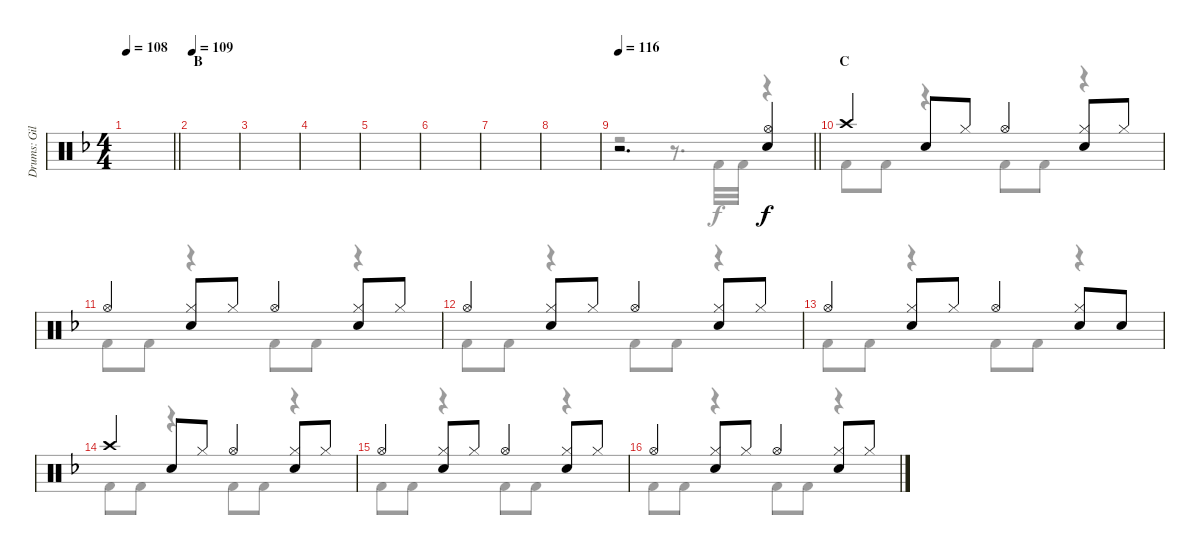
\track ("Drums: Gil" "Drums: Gil") {instrument percussion}
\staff {score}
\articulation defaults
\voice
\ts (4 4)
\tempo 108
\clef neutral
\barLineRight lightlight
\ks f
|
\section ("" "B")
\tempo 109
|
|
|
|
|
|
|
\tempo 116
\barLineRight lightlight
r.2{d} ("Hi-Hat (open)" "Snare (hit) 2").4 |
\section ("" "C")
"Crash high (hit)".4{beam merge} "Snare (hit) 2".8 "Hi-Hat (closed)".8 "Hi-Hat (open)".4{beam merge} ("Hi-Hat (closed)" "Snare (hit) 2").8 "Hi-Hat (closed)".8 |
"Hi-Hat (open)".4{beam merge} ("Hi-Hat (closed)" "Snare (hit) 2").8 "Hi-Hat (closed)".8 "Hi-Hat (open)".4{beam merge} ("Hi-Hat (closed)" "Snare (hit) 2").8 "Hi-Hat (closed)".8 |
"Hi-Hat (open)".4{beam merge} ("Hi-Hat (closed)" "Snare (hit) 2").8 "Hi-Hat (closed)".8 "Hi-Hat (open)".4{beam merge} ("Hi-Hat (closed)" "Snare (hit) 2").8 "Hi-Hat (closed)".8 |
"Hi-Hat (open)".4{beam merge} ("Hi-Hat (closed)" "Snare (hit) 2").8 "Hi-Hat (closed)".8 "Hi-Hat (open)".4{beam merge} ("Hi-Hat (closed)" "Snare (hit) 2").8 "Electric Snare (hit)".8 |
"Crash high (hit)".4{beam merge} "Snare (hit) 2".8 "Hi-Hat (closed)".8 "Hi-Hat (open)".4{beam merge} ("Hi-Hat (closed)" "Snare (hit) 2").8 "Hi-Hat (closed)".8 |
"Hi-Hat (open)".4{beam merge} ("Hi-Hat (closed)" "Snare (hit) 2").8 "Hi-Hat (closed)".8 "Hi-Hat (open)".4{beam merge} ("Hi-Hat (closed)" "Snare (hit) 2").8 "Hi-Hat (closed)".8 |
"Hi-Hat (open)".4{beam merge} ("Hi-Hat (closed)" "Snare (hit) 2").8 "Hi-Hat (closed)".8 "Hi-Hat (open)".4{beam merge} ("Hi-Hat (closed)" "Snare (hit) 2").8 "Hi-Hat (closed)".8
\voice
\clef neutral
\ottava regular
\simile none
\barLineRight lightlight
\ks f
|
|
|
|
|
|
|
|
\barLineRight lightlight
r.2 r.8{d} "Kick (hit) 2".32 "Kick (hit) 2".32 r.4 |
"Kick (hit) 2".8 "Kick (hit) 2".8 r.4 "Kick (hit) 2".8 "Kick (hit) 2".8 r.4 |
"Kick (hit) 2".8 "Kick (hit) 2".8 r.4 "Kick (hit) 2".8 "Kick (hit) 2".8 r.4 |
"Kick (hit) 2".8 "Kick (hit) 2".8 r.4 "Kick (hit) 2".8 "Kick (hit) 2".8 r.4 |
"Kick (hit) 2".8 "Kick (hit) 2".8 r.4 "Kick (hit) 2".8 "Kick (hit) 2".8 r.4 |
"Kick (hit) 2".8 "Kick (hit) 2".8 r.4 "Kick (hit) 2".8 "Kick (hit) 2".8 r.4 |
"Kick (hit) 2".8 "Kick (hit) 2".8 r.4 "Kick (hit) 2".8 "Kick (hit) 2".8 r.4 |
"Kick (hit) 2".8 "Kick (hit) 2".8 r.4 "Kick (hit) 2".8 "Kick (hit) 2".8 r.4
